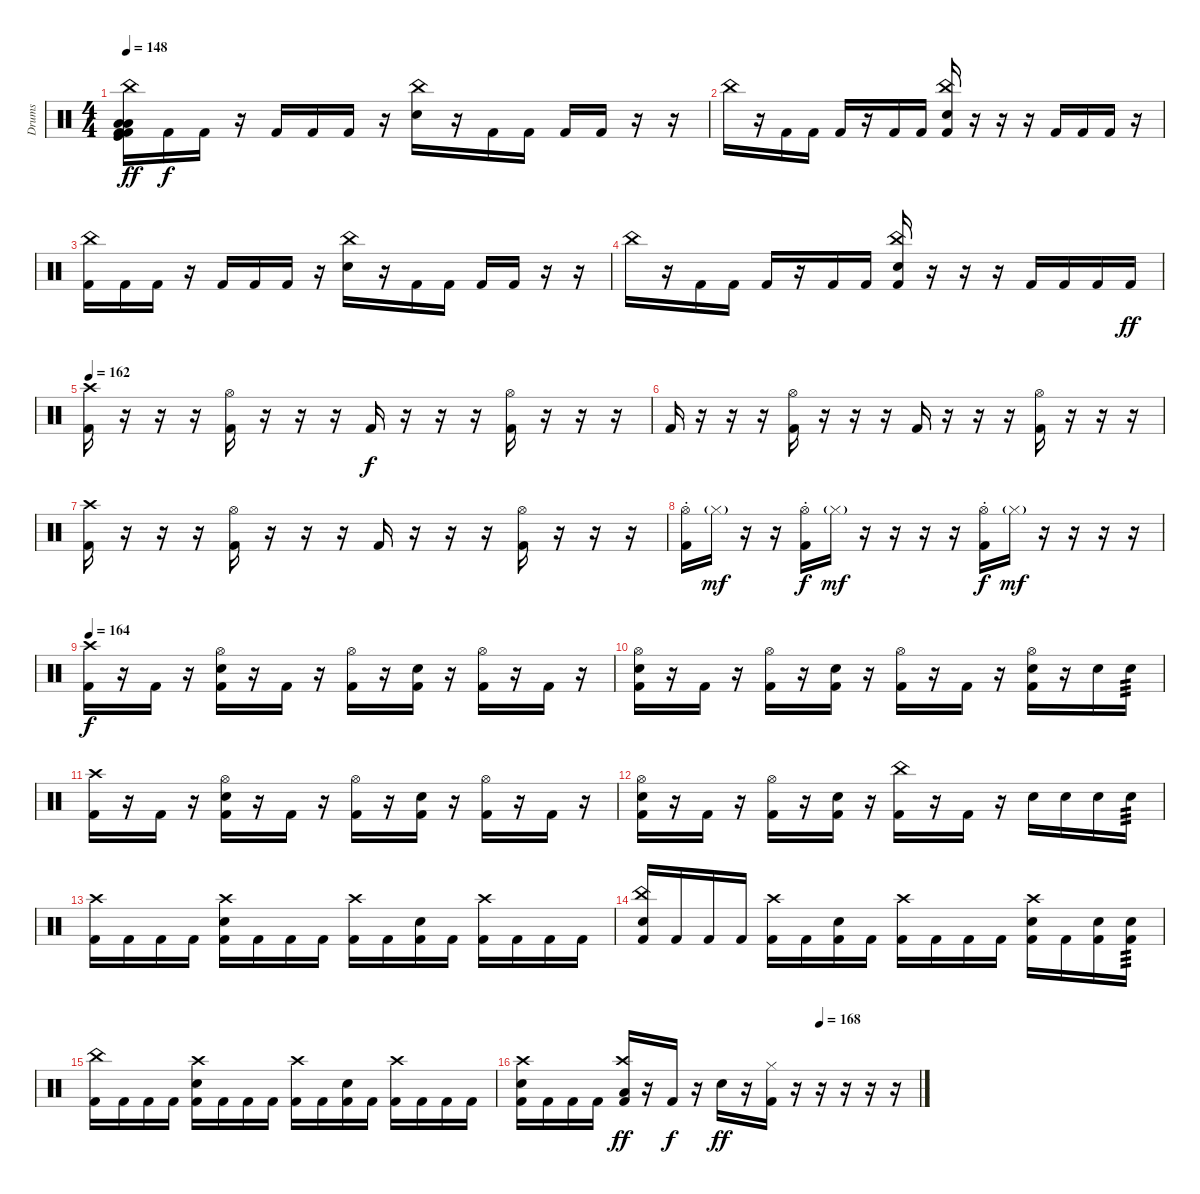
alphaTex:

\track ("Drums" "Drums") {instrument percussion}
\staff {score}
\articulation defaults
\ts (4 4)
\tempo 148
\clef neutral
\ks c
("Kick (hit) 2" "Low Floor Tom (hit)" "Kick (hit)" "China (hit)" "Low Floor Tom (hit)" "Kick (hit) 2").16{dy ff} "Kick (hit) 2".16{dy f} "Kick (hit) 2".16 r.16 "Kick (hit) 2".16 "Kick (hit) 2".16 "Kick (hit) 2".16 r.16 ("China (hit)" "Electric Snare (hit)").16 r.16 "Kick (hit) 2".16 "Kick (hit) 2".16 "Kick (hit) 2".16 "Kick (hit) 2".16 r.16 r.16 |
"China (hit)".16 r.16 "Kick (hit) 2".16 "Kick (hit) 2".16 "Kick (hit) 2".16 r.16 "Kick (hit) 2".16 "Kick (hit) 2".16 ("China (hit)" "Electric Snare (hit)" "Kick (hit) 2").16 r.16 r.16 r.16 "Kick (hit) 2".16 "Kick (hit) 2".16 "Kick (hit) 2".16 r.16 |
("China (hit)" "Kick (hit) 2").16 "Kick (hit) 2".16 "Kick (hit) 2".16 r.16 "Kick (hit) 2".16 "Kick (hit) 2".16 "Kick (hit) 2".16 r.16 ("China (hit)" "Electric Snare (hit)").16 r.16 "Kick (hit) 2".16 "Kick (hit) 2".16 "Kick (hit) 2".16 "Kick (hit) 2".16 r.16 r.16 |
"China (hit)".16 r.16 "Kick (hit) 2".16 "Kick (hit) 2".16 "Kick (hit) 2".16 r.16 "Kick (hit) 2".16 "Kick (hit) 2".16 ("China (hit)" "Electric Snare (hit)" "Kick (hit) 2").16 r.16 r.16 r.16 "Kick (hit) 2".16 "Kick (hit) 2".16 "Kick (hit) 2".16 "Kick (hit) 2".16{dy ff} |
\tempo 162
("Crash high (hit)" "Kick (hit) 2").16 r.16 r.16 r.16 ("Hi-Hat (open)" "Kick (hit) 2").16 r.16 r.16 r.16 "Kick (hit) 2".16{dy f} r.16 r.16 r.16 ("Hi-Hat (open)" "Kick (hit) 2").16 r.16 r.16 r.16 |
"Kick (hit) 2".16 r.16 r.16 r.16 ("Hi-Hat (open)" "Kick (hit) 2").16 r.16 r.16 r.16 "Kick (hit) 2".16 r.16 r.16 r.16 ("Hi-Hat (open)" "Kick (hit) 2").16 r.16 r.16 r.16 |
("Crash high (hit)" "Kick (hit) 2").16 r.16 r.16 r.16 ("Hi-Hat (open)" "Kick (hit) 2").16 r.16 r.16 r.16 "Kick (hit) 2".16 r.16 r.16 r.16 ("Hi-Hat (open)" "Kick (hit) 2").16 r.16 r.16 r.16 |
("Hi-Hat (open)"{st} "Kick (hit) 2").16 "Hi-Hat (closed)"{g}.16{dy mf} r.16 r.16 ("Hi-Hat (open)"{st} "Kick (hit) 2").16{dy f} "Hi-Hat (closed)"{g}.16{dy mf} r.16 r.16 r.16 r.16 ("Hi-Hat (open)" "Kick (hit) 2"{st}).16{dy f} "Hi-Hat (closed)"{g}.16{dy mf} r.16 r.16 r.16 r.16 |
\tempo 164
("Crash high (hit)" "Kick (hit) 2").16{dy f} r.16 "Kick (hit) 2".16 r.16 ("Hi-Hat (open)" "Electric Snare (hit)" "Kick (hit) 2").16 r.16 "Kick (hit) 2".16 r.16 ("Hi-Hat (open)" "Kick (hit) 2").16 r.16 ("Electric Snare (hit)" "Kick (hit) 2").16 r.16 ("Hi-Hat (open)" "Kick (hit) 2").16 r.16 "Kick (hit) 2".16 r.16 |
("Hi-Hat (open)" "Electric Snare (hit)" "Kick (hit) 2").16 r.16 "Kick (hit) 2".16 r.16 ("Hi-Hat (open)" "Kick (hit) 2").16 r.16 ("Electric Snare (hit)" "Kick (hit) 2").16 r.16 ("Hi-Hat (open)" "Kick (hit) 2").16 r.16 "Kick (hit) 2".16 r.16 ("Hi-Hat (open)" "Electric Snare (hit)" "Kick (hit) 2").16 r.16 "Electric Snare (hit)".16 "Electric Snare (hit)".16{tp 3} |
("Crash high (hit)" "Kick (hit) 2").16 r.16 "Kick (hit) 2".16 r.16 ("Hi-Hat (open)" "Electric Snare (hit)" "Kick (hit) 2").16 r.16 "Kick (hit) 2".16 r.16 ("Hi-Hat (open)" "Kick (hit) 2").16 r.16 ("Electric Snare (hit)" "Kick (hit) 2").16 r.16 ("Hi-Hat (open)" "Kick (hit) 2").16 r.16 "Kick (hit) 2".16 r.16 |
("Hi-Hat (open)" "Electric Snare (hit)" "Kick (hit) 2").16 r.16 "Kick (hit) 2".16 r.16 ("Hi-Hat (open)" "Kick (hit) 2").16 r.16 ("Electric Snare (hit)" "Kick (hit) 2").16 r.16 ("China (hit)" "Kick (hit) 2").16 r.16 "Kick (hit) 2".16 r.16 "Electric Snare (hit)".16 "Electric Snare (hit)".16 "Electric Snare (hit)".16 "Electric Snare (hit)".16{tp 3} |
("Crash high (hit)" "Kick (hit) 2").16 "Kick (hit) 2".16 "Kick (hit) 2".16 "Kick (hit) 2".16 ("Crash high (hit)" "Electric Snare (hit)" "Kick (hit) 2").16 "Kick (hit) 2".16 "Kick (hit) 2".16 "Kick (hit) 2".16 ("Crash high (hit)" "Kick (hit) 2").16 "Kick (hit) 2".16 ("Electric Snare (hit)" "Kick (hit) 2").16 "Kick (hit) 2".16 ("Crash high (hit)" "Kick (hit) 2").16 "Kick (hit) 2".16 "Kick (hit) 2".16 "Kick (hit) 2".16 |
("China (hit)" "Electric Snare (hit)" "Kick (hit) 2").16 "Kick (hit) 2".16 "Kick (hit) 2".16 "Kick (hit) 2".16 ("Crash high (hit)" "Kick (hit) 2").16 "Kick (hit) 2".16 ("Electric Snare (hit)" "Kick (hit) 2").16 "Kick (hit) 2".16 ("Crash high (hit)" "Kick (hit) 2").16 "Kick (hit) 2".16 "Kick (hit) 2".16 "Kick (hit) 2".16 ("Crash high (hit)" "Electric Snare (hit)" "Kick (hit) 2").16 "Kick (hit) 2".16 ("Electric Snare (hit)" "Kick (hit) 2").16 ("Electric Snare (hit)" "Kick (hit) 2").16{tp 3} |
("China (hit)" "Kick (hit) 2").16 "Kick (hit) 2".16 "Kick (hit) 2".16 "Kick (hit) 2".16 ("Crash high (hit)" "Electric Snare (hit)" "Kick (hit) 2").16 "Kick (hit) 2".16 "Kick (hit) 2".16 "Kick (hit) 2".16 ("Crash high (hit)" "Kick (hit) 2").16 "Kick (hit) 2".16 ("Electric Snare (hit)" "Kick (hit) 2").16 "Kick (hit) 2".16 ("Crash high (hit)" "Kick (hit) 2").16 "Kick (hit) 2".16 "Kick (hit) 2".16 "Kick (hit) 2".16 |
\tempo (168 0.75)
("Crash high (hit)" "Electric Snare (hit)" "Kick (hit) 2").16 "Kick (hit) 2".16 "Kick (hit) 2".16 "Kick (hit) 2".16 ("Crash high (hit)" "Low Tom (hit)" "Kick (hit) 2").16{dy ff} r.16 "Kick (hit) 2".16{dy f} r.16 "Electric Snare (hit)".16{dy ff} r.16 ("Hi-Hat (closed)" "Kick (hit) 2").16 r.16 r.16 r.16 r.16 r.16
